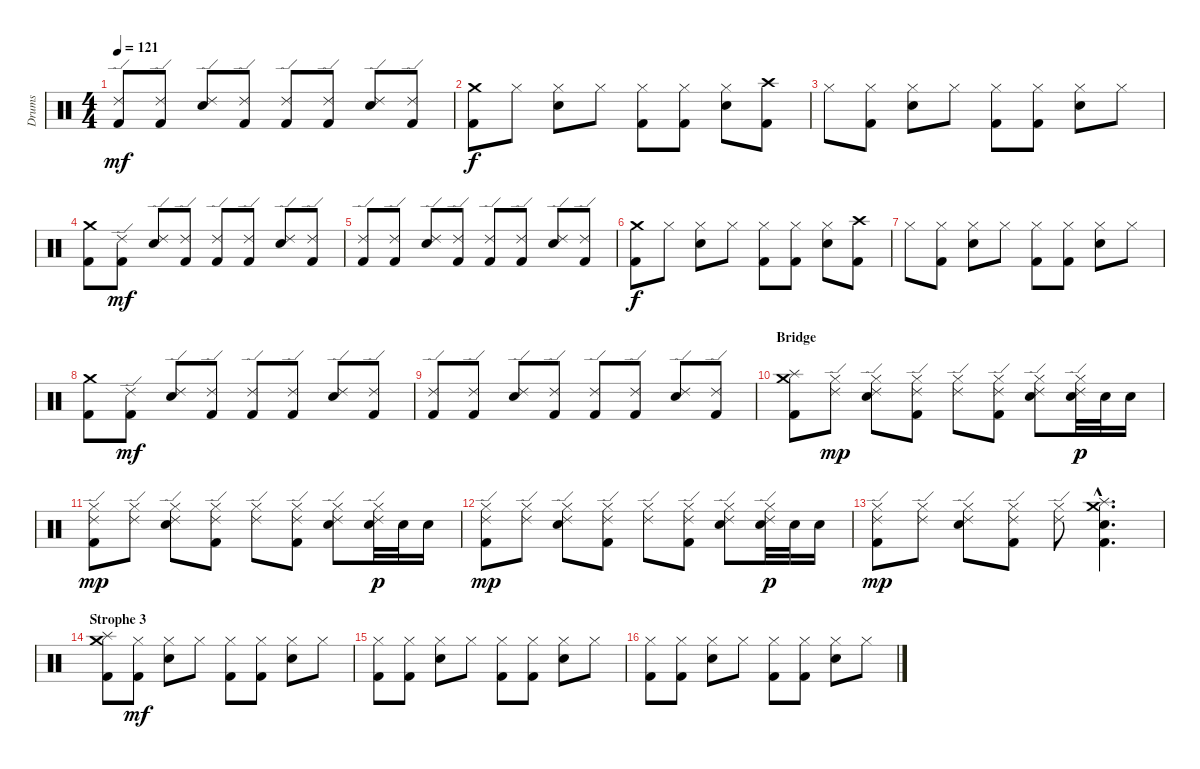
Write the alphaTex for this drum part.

\track ("Drums" "Drums") {instrument percussion}
\staff {score}
\articulation defaults
\ts (4 4)
\tempo 121
\clef neutral
\ks c
("Ride (edge) 2" "Kick (hit) 2").8{dy mf} ("Ride (edge) 2" "Kick (hit) 2").8 ("Ride (edge) 2" "Electric Snare (hit)").8 ("Ride (edge) 2" "Kick (hit) 2").8 ("Ride (edge) 2" "Kick (hit) 2").8 ("Ride (edge) 2" "Kick (hit) 2").8 ("Ride (edge) 2" "Electric Snare (hit)").8 ("Ride (edge) 2" "Kick (hit) 2").8 |
("Crash medium (hit)" "Kick (hit) 2").8{dy f} "Hi-Hat (closed)".8 ("Hi-Hat (closed)" "Electric Snare (hit)").8 "Hi-Hat (closed)".8 ("Hi-Hat (closed)" "Kick (hit) 2").8 ("Hi-Hat (closed)" "Kick (hit) 2").8 ("Hi-Hat (closed)" "Electric Snare (hit)").8 ("Crash high (hit)" "Kick (hit) 2").8 |
"Hi-Hat (closed)".8 ("Hi-Hat (closed)" "Kick (hit) 2").8 ("Hi-Hat (closed)" "Electric Snare (hit)").8 "Hi-Hat (closed)".8 ("Hi-Hat (closed)" "Kick (hit) 2").8 ("Hi-Hat (closed)" "Kick (hit) 2").8 ("Hi-Hat (closed)" "Electric Snare (hit)").8 "Hi-Hat (closed)".8 |
("Crash medium (hit)" "Kick (hit) 2").8 ("Ride (edge) 2" "Kick (hit) 2").8{dy mf} ("Ride (edge) 2" "Electric Snare (hit)").8 ("Ride (edge) 2" "Kick (hit) 2").8 ("Ride (edge) 2" "Kick (hit) 2").8 ("Ride (edge) 2" "Kick (hit) 2").8 ("Ride (edge) 2" "Electric Snare (hit)").8 ("Ride (edge) 2" "Kick (hit) 2").8 |
("Ride (edge) 2" "Kick (hit) 2").8 ("Ride (edge) 2" "Kick (hit) 2").8 ("Ride (edge) 2" "Electric Snare (hit)").8 ("Ride (edge) 2" "Kick (hit) 2").8 ("Ride (edge) 2" "Kick (hit) 2").8 ("Ride (edge) 2" "Kick (hit) 2").8 ("Ride (edge) 2" "Electric Snare (hit)").8 ("Ride (edge) 2" "Kick (hit) 2").8 |
("Crash medium (hit)" "Kick (hit) 2").8{dy f} "Hi-Hat (closed)".8 ("Hi-Hat (closed)" "Electric Snare (hit)").8 "Hi-Hat (closed)".8 ("Hi-Hat (closed)" "Kick (hit) 2").8 ("Hi-Hat (closed)" "Kick (hit) 2").8 ("Hi-Hat (closed)" "Electric Snare (hit)").8 ("Crash high (hit)" "Kick (hit) 2").8 |
"Hi-Hat (closed)".8 ("Hi-Hat (closed)" "Kick (hit) 2").8 ("Hi-Hat (closed)" "Electric Snare (hit)").8 "Hi-Hat (closed)".8 ("Hi-Hat (closed)" "Kick (hit) 2").8 ("Hi-Hat (closed)" "Kick (hit) 2").8 ("Hi-Hat (closed)" "Electric Snare (hit)").8 "Hi-Hat (closed)".8 |
("Crash medium (hit)" "Kick (hit) 2").8 ("Ride (edge) 2" "Kick (hit) 2").8{dy mf} ("Ride (edge) 2" "Electric Snare (hit)").8 ("Ride (edge) 2" "Kick (hit) 2").8 ("Ride (edge) 2" "Kick (hit) 2").8 ("Ride (edge) 2" "Kick (hit) 2").8 ("Ride (edge) 2" "Electric Snare (hit)").8 ("Ride (edge) 2" "Kick (hit) 2").8 |
("Ride (edge) 2" "Kick (hit) 2").8 ("Ride (edge) 2" "Kick (hit) 2").8 ("Ride (edge) 2" "Electric Snare (hit)").8 ("Ride (edge) 2" "Kick (hit) 2").8 ("Ride (edge) 2" "Kick (hit) 2").8 ("Ride (edge) 2" "Kick (hit) 2").8 ("Ride (edge) 2" "Electric Snare (hit)").8 ("Ride (edge) 2" "Kick (hit) 2").8 |
\section ("" "Bridge")
("Crash medium (hit)" "Splash (hit)" "Kick (hit) 2").8 ("Hi-Hat (closed)" "Ride (edge) 2").8{dy mp} ("Hi-Hat (closed)" "Ride (edge) 2" "Electric Snare (hit)").8 ("Hi-Hat (closed)" "Ride (edge) 2" "Kick (hit) 2").8 ("Hi-Hat (closed)" "Ride (edge) 2").8 ("Hi-Hat (closed)" "Ride (edge) 2" "Kick (hit) 2").8 ("Hi-Hat (closed)" "Ride (edge) 2" "Electric Snare (hit)").8 ("Hi-Hat (closed)" "Ride (edge) 2" "Electric Snare (hit)").32{dy p} "Electric Snare (hit)".32 "Electric Snare (hit)".16 |
("Hi-Hat (closed)" "Ride (edge) 2" "Kick (hit) 2").8{dy mp} ("Hi-Hat (closed)" "Ride (edge) 2").8 ("Hi-Hat (closed)" "Ride (edge) 2" "Electric Snare (hit)").8 ("Hi-Hat (closed)" "Ride (edge) 2" "Kick (hit) 2").8 ("Hi-Hat (closed)" "Ride (edge) 2").8 ("Hi-Hat (closed)" "Ride (edge) 2" "Kick (hit) 2").8 ("Hi-Hat (closed)" "Ride (edge) 2" "Electric Snare (hit)").8 ("Hi-Hat (closed)" "Ride (edge) 2" "Electric Snare (hit)").32{dy p} "Electric Snare (hit)".32 "Electric Snare (hit)".16 |
("Hi-Hat (closed)" "Ride (edge) 2" "Kick (hit) 2").8{dy mp} ("Hi-Hat (closed)" "Ride (edge) 2").8 ("Hi-Hat (closed)" "Ride (edge) 2" "Electric Snare (hit)").8 ("Hi-Hat (closed)" "Ride (edge) 2" "Kick (hit) 2").8 ("Hi-Hat (closed)" "Ride (edge) 2").8 ("Hi-Hat (closed)" "Ride (edge) 2" "Kick (hit) 2").8 ("Hi-Hat (closed)" "Ride (edge) 2" "Electric Snare (hit)").8 ("Hi-Hat (closed)" "Ride (edge) 2" "Electric Snare (hit)").32{dy p} "Electric Snare (hit)".32 "Electric Snare (hit)".16 |
("Hi-Hat (closed)" "Ride (edge) 2" "Kick (hit) 2").8{dy mp} ("Hi-Hat (closed)" "Ride (edge) 2").8 ("Hi-Hat (closed)" "Ride (edge) 2" "Electric Snare (hit)").8 ("Hi-Hat (closed)" "Ride (edge) 2" "Kick (hit) 2").8 ("Hi-Hat (closed)" "Ride (edge) 2").8 ("Crash medium (hit)"{hac} "Splash (hit)"{hac} "Electric Snare (hit)"{hac} "Kick (hit) 2"{hac}).4{d} |
\section ("" "Strophe 3")
("Crash medium (hit)" "Splash (hit)" "Kick (hit) 2").8 ("Hi-Hat (closed)" "Kick (hit) 2").8{dy mf} ("Hi-Hat (closed)" "Electric Snare (hit)").8 "Hi-Hat (closed)".8 ("Hi-Hat (closed)" "Kick (hit) 2").8 ("Hi-Hat (closed)" "Kick (hit) 2").8 ("Hi-Hat (closed)" "Electric Snare (hit)").8 "Hi-Hat (closed)".8 |
("Hi-Hat (closed)" "Kick (hit) 2").8 ("Hi-Hat (closed)" "Kick (hit) 2").8 ("Hi-Hat (closed)" "Electric Snare (hit)").8 "Hi-Hat (closed)".8 ("Hi-Hat (closed)" "Kick (hit) 2").8 ("Hi-Hat (closed)" "Kick (hit) 2").8 ("Hi-Hat (closed)" "Electric Snare (hit)").8 "Hi-Hat (closed)".8 |
("Hi-Hat (closed)" "Kick (hit) 2").8 ("Hi-Hat (closed)" "Kick (hit) 2").8 ("Hi-Hat (closed)" "Electric Snare (hit)").8 "Hi-Hat (closed)".8 ("Hi-Hat (closed)" "Kick (hit) 2").8 ("Hi-Hat (closed)" "Kick (hit) 2").8 ("Hi-Hat (closed)" "Electric Snare (hit)").8 "Hi-Hat (closed)".8
